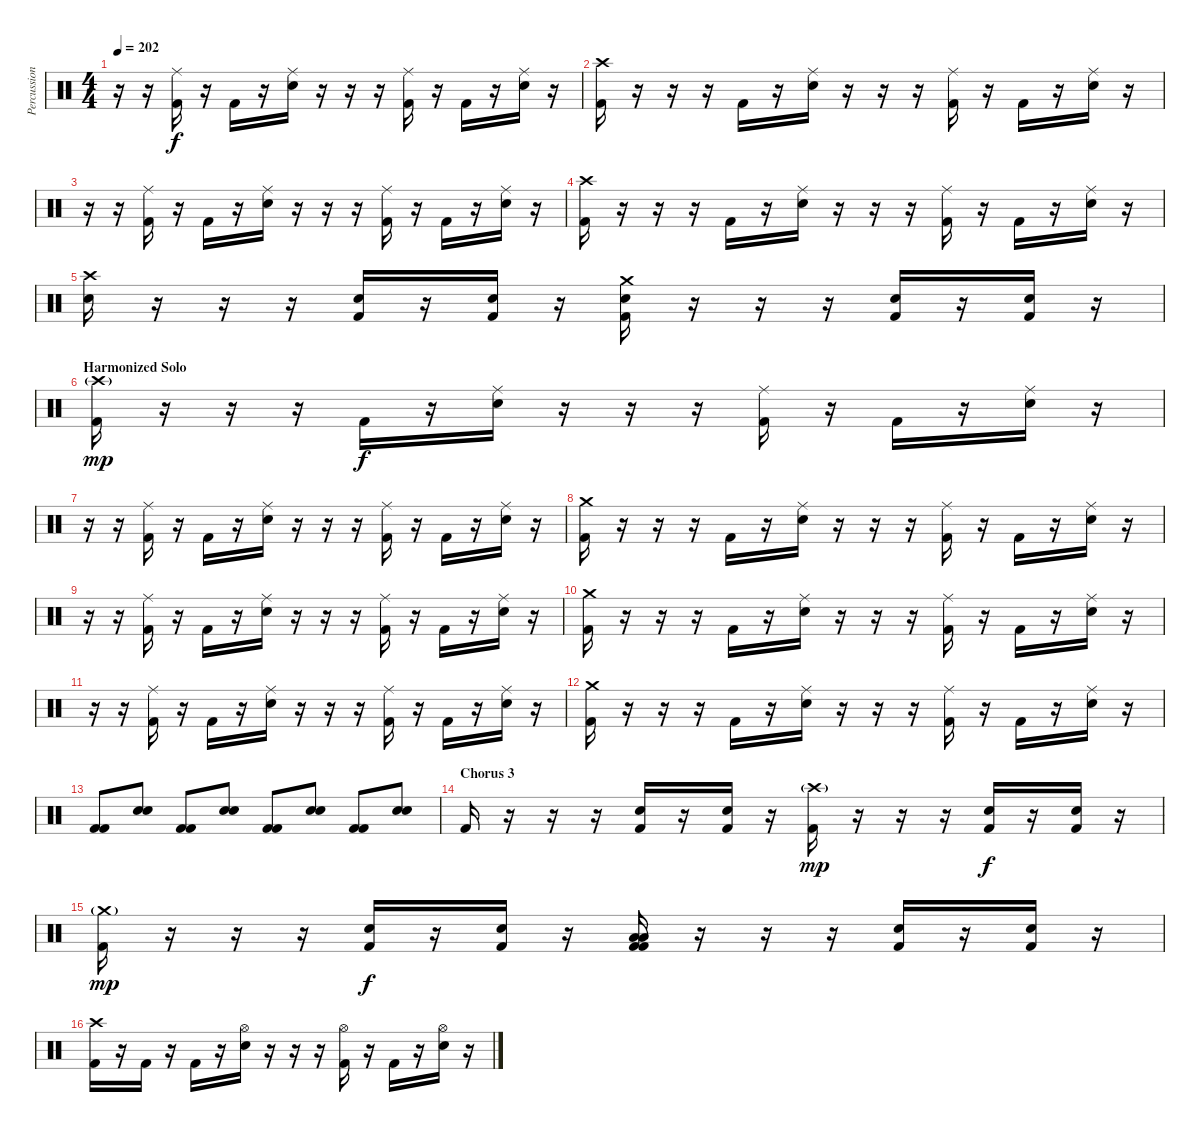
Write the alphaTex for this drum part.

\track ("Percussion" "Percussion") {instrument percussion}
\staff {score}
\articulation defaults
\ts (4 4)
\tempo 202
\clef neutral
\ks c
r.16{dy f} r.16 ("Ride (middle)" "Kick (hit) 2").16 r.16 "Kick (hit) 2".16 r.16 ("Ride (middle)" "Electric Snare (hit)").16 r.16 r.16 r.16 ("Ride (middle)" "Kick (hit) 2").16 r.16 "Kick (hit) 2".16 r.16 ("Ride (middle)" "Electric Snare (hit)").16 r.16 |
("Crash high (hit)" "Kick (hit) 2").16 r.16 r.16 r.16 "Kick (hit) 2".16 r.16 ("Ride (middle)" "Electric Snare (hit)").16 r.16 r.16 r.16 ("Ride (middle)" "Kick (hit) 2").16 r.16 "Kick (hit) 2".16 r.16 ("Ride (middle)" "Electric Snare (hit)").16 r.16 |
r.16 r.16 ("Ride (middle)" "Kick (hit) 2").16 r.16 "Kick (hit) 2".16 r.16 ("Ride (middle)" "Electric Snare (hit)").16 r.16 r.16 r.16 ("Ride (middle)" "Kick (hit) 2").16 r.16 "Kick (hit) 2".16 r.16 ("Ride (middle)" "Electric Snare (hit)").16 r.16 |
("Crash high (hit)" "Kick (hit) 2").16 r.16 r.16 r.16 "Kick (hit) 2".16 r.16 ("Ride (middle)" "Electric Snare (hit)").16 r.16 r.16 r.16 ("Ride (middle)" "Kick (hit) 2").16 r.16 "Kick (hit) 2".16 r.16 ("Ride (middle)" "Electric Snare (hit)").16 r.16 |
("Crash high (hit)" "Electric Snare (hit)").16 r.16 r.16 r.16 ("Electric Snare (hit)" "Kick (hit) 2").16 r.16 ("Electric Snare (hit)" "Kick (hit) 2").16 r.16 ("Crash medium (hit)" "Electric Snare (hit)" "Kick (hit) 2").16 r.16 r.16 r.16 ("Electric Snare (hit)" "Kick (hit) 2").16 r.16 ("Electric Snare (hit)" "Kick (hit) 2").16 r.16 |
\section ("" "Harmonized Solo")
("Crash high (hit)"{g} "Kick (hit) 2").16{dy mp} r.16 r.16 r.16 "Kick (hit) 2".16{dy f} r.16 ("Ride (middle)" "Electric Snare (hit)").16 r.16 r.16 r.16 ("Ride (middle)" "Kick (hit) 2").16 r.16 "Kick (hit) 2".16 r.16 ("Ride (middle)" "Electric Snare (hit)").16 r.16 |
r.16 r.16 ("Ride (middle)" "Kick (hit) 2").16 r.16 "Kick (hit) 2".16 r.16 ("Ride (middle)" "Electric Snare (hit)").16 r.16 r.16 r.16 ("Ride (middle)" "Kick (hit) 2").16 r.16 "Kick (hit) 2".16 r.16 ("Ride (middle)" "Electric Snare (hit)").16 r.16 |
("Crash medium (hit)" "Kick (hit) 2").16 r.16 r.16 r.16 "Kick (hit) 2".16 r.16 ("Ride (middle)" "Electric Snare (hit)").16 r.16 r.16 r.16 ("Ride (middle)" "Kick (hit) 2").16 r.16 "Kick (hit) 2".16 r.16 ("Ride (middle)" "Electric Snare (hit)").16 r.16 |
r.16 r.16 ("Ride (middle)" "Kick (hit) 2").16 r.16 "Kick (hit) 2".16 r.16 ("Ride (middle)" "Electric Snare (hit)").16 r.16 r.16 r.16 ("Ride (middle)" "Kick (hit) 2").16 r.16 "Kick (hit) 2".16 r.16 ("Ride (middle)" "Electric Snare (hit)").16 r.16 |
("Crash medium (hit)" "Kick (hit) 2").16 r.16 r.16 r.16 "Kick (hit) 2".16 r.16 ("Ride (middle)" "Electric Snare (hit)").16 r.16 r.16 r.16 ("Ride (middle)" "Kick (hit) 2").16 r.16 "Kick (hit) 2".16 r.16 ("Ride (middle)" "Electric Snare (hit)").16 r.16 |
r.16 r.16 ("Ride (middle)" "Kick (hit) 2").16 r.16 "Kick (hit) 2".16 r.16 ("Ride (middle)" "Electric Snare (hit)").16 r.16 r.16 r.16 ("Ride (middle)" "Kick (hit) 2").16 r.16 "Kick (hit) 2".16 r.16 ("Ride (middle)" "Electric Snare (hit)").16 r.16 |
("Crash medium (hit)" "Kick (hit) 2").16 r.16 r.16 r.16 "Kick (hit) 2".16 r.16 ("Ride (middle)" "Electric Snare (hit)").16 r.16 r.16 r.16 ("Ride (middle)" "Kick (hit) 2").16 r.16 "Kick (hit) 2".16 r.16 ("Ride (middle)" "Electric Snare (hit)").16 r.16 |
("Kick (hit) 2" "Kick (hit) 2").8 ("Electric Snare (hit)" "Electric Snare (hit)").8 ("Kick (hit) 2" "Kick (hit) 2").8 ("Electric Snare (hit)" "Electric Snare (hit)").8 ("Kick (hit) 2" "Kick (hit) 2").8 ("Electric Snare (hit)" "Electric Snare (hit)").8 ("Kick (hit) 2" "Kick (hit) 2").8 ("Electric Snare (hit)" "Electric Snare (hit)").8 |
\section ("" "Chorus 3")
"Kick (hit) 2".16 r.16 r.16 r.16 ("Electric Snare (hit)" "Kick (hit) 2").16 r.16 ("Electric Snare (hit)" "Kick (hit) 2").16 r.16 ("Crash high (hit)"{g} "Kick (hit) 2").16{dy mp} r.16 r.16 r.16 ("Electric Snare (hit)" "Kick (hit) 2").16{dy f} r.16 ("Electric Snare (hit)" "Kick (hit) 2").16 r.16 |
("Crash medium (hit)"{g} "Kick (hit) 2").16{dy mp} r.16 r.16 r.16 ("Electric Snare (hit)" "Kick (hit) 2").16{dy f} r.16 ("Electric Snare (hit)" "Kick (hit) 2").16 r.16 ("Low Tom (hit)" "Low Tom (hit)" "Kick (hit) 2" "Kick (hit) 2").16 r.16 r.16 r.16 ("Electric Snare (hit)" "Kick (hit) 2").16 r.16 ("Electric Snare (hit)" "Kick (hit) 2").16 r.16 |
("Crash high (hit)" "Kick (hit) 2").16 r.16 "Kick (hit) 2".16 r.16 "Kick (hit) 2".16 r.16 ("Hi-Hat (open)" "Electric Snare (hit)").16 r.16 r.16 r.16 ("Hi-Hat (open)" "Kick (hit) 2").16 r.16 "Kick (hit) 2".16 r.16 ("Hi-Hat (open)" "Electric Snare (hit)").16 r.16
